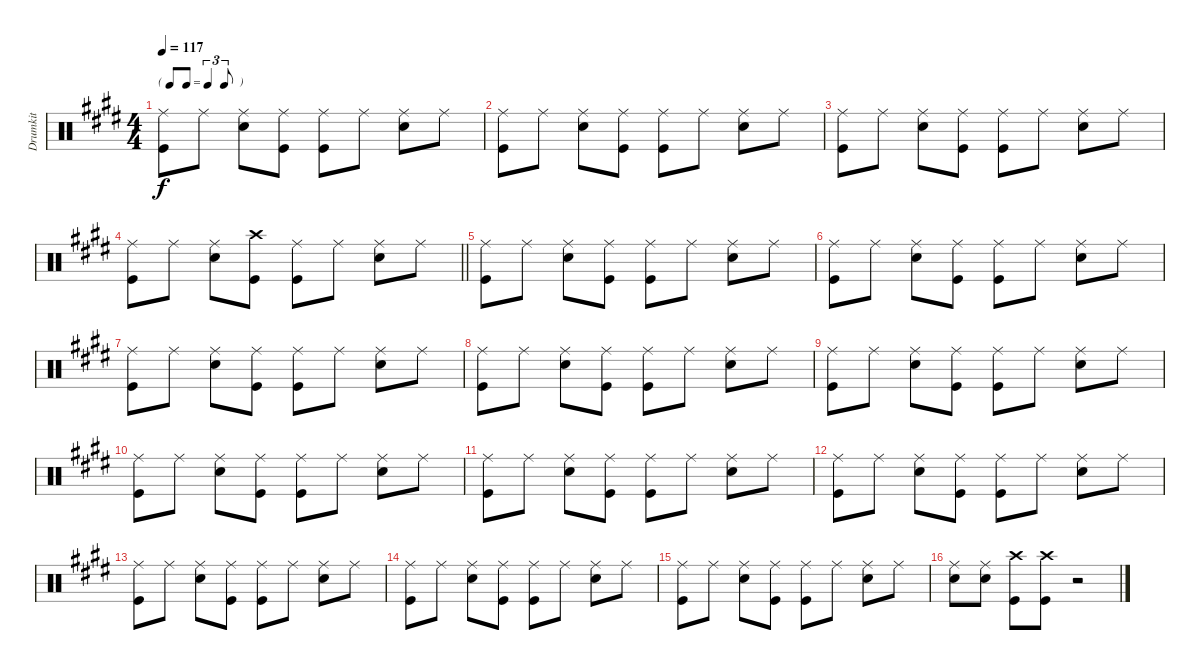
\track ("Drumkit" "Drumkit") {instrument percussion}
\staff {score}
\articulation defaults
\ts (4 4)
\tf triplet8th
\tempo 117
\clef neutral
\ks e
("Ride (middle)" "Kick (hit)").8{dy f} "Ride (middle)".8 ("Ride (middle)" "Snare (hit) 2").8 ("Ride (middle)" "Kick (hit)").8 ("Ride (middle)" "Kick (hit)").8 "Ride (middle)".8 ("Ride (middle)" "Snare (hit) 2").8 "Ride (middle)".8 |
("Ride (middle)" "Kick (hit)").8 "Ride (middle)".8 ("Ride (middle)" "Snare (hit) 2").8 ("Ride (middle)" "Kick (hit)").8 ("Ride (middle)" "Kick (hit)").8 "Ride (middle)".8 ("Ride (middle)" "Snare (hit) 2").8 "Ride (middle)".8 |
("Ride (middle)" "Kick (hit)").8 "Ride (middle)".8 ("Ride (middle)" "Snare (hit) 2").8 ("Ride (middle)" "Kick (hit)").8 ("Ride (middle)" "Kick (hit)").8 "Ride (middle)".8 ("Ride (middle)" "Snare (hit) 2").8 "Ride (middle)".8 |
\barLineRight lightlight
("Ride (middle)" "Kick (hit)").8 "Ride (middle)".8 ("Ride (middle)" "Snare (hit) 2").8 ("Crash high (hit)" "Kick (hit)").8 ("Ride (middle)" "Kick (hit)").8 "Ride (middle)".8 ("Ride (middle)" "Snare (hit) 2").8 "Ride (middle)".8 |
("Ride (middle)" "Kick (hit)").8 "Ride (middle)".8 ("Ride (middle)" "Snare (hit) 2").8 ("Ride (middle)" "Kick (hit)").8 ("Ride (middle)" "Kick (hit)").8 "Ride (middle)".8 ("Ride (middle)" "Snare (hit) 2").8 "Ride (middle)".8 |
("Ride (middle)" "Kick (hit)").8 "Ride (middle)".8 ("Ride (middle)" "Snare (hit) 2").8 ("Ride (middle)" "Kick (hit)").8 ("Ride (middle)" "Kick (hit)").8 "Ride (middle)".8 ("Ride (middle)" "Snare (hit) 2").8 "Ride (middle)".8 |
("Ride (middle)" "Kick (hit)").8 "Ride (middle)".8 ("Ride (middle)" "Snare (hit) 2").8 ("Ride (middle)" "Kick (hit)").8 ("Ride (middle)" "Kick (hit)").8 "Ride (middle)".8 ("Ride (middle)" "Snare (hit) 2").8 "Ride (middle)".8 |
("Ride (middle)" "Kick (hit)").8 "Ride (middle)".8 ("Ride (middle)" "Snare (hit) 2").8 ("Ride (middle)" "Kick (hit)").8 ("Ride (middle)" "Kick (hit)").8 "Ride (middle)".8 ("Ride (middle)" "Snare (hit) 2").8 "Ride (middle)".8 |
("Ride (middle)" "Kick (hit)").8 "Ride (middle)".8 ("Ride (middle)" "Snare (hit) 2").8 ("Ride (middle)" "Kick (hit)").8 ("Ride (middle)" "Kick (hit)").8 "Ride (middle)".8 ("Ride (middle)" "Snare (hit) 2").8 "Ride (middle)".8 |
("Ride (middle)" "Kick (hit)").8 "Ride (middle)".8 ("Ride (middle)" "Snare (hit) 2").8 ("Ride (middle)" "Kick (hit)").8 ("Ride (middle)" "Kick (hit)").8 "Ride (middle)".8 ("Ride (middle)" "Snare (hit) 2").8 "Ride (middle)".8 |
("Ride (middle)" "Kick (hit)").8 "Ride (middle)".8 ("Ride (middle)" "Snare (hit) 2").8 ("Ride (middle)" "Kick (hit)").8 ("Ride (middle)" "Kick (hit)").8 "Ride (middle)".8 ("Ride (middle)" "Snare (hit) 2").8 "Ride (middle)".8 |
("Ride (middle)" "Kick (hit)").8 "Ride (middle)".8 ("Ride (middle)" "Snare (hit) 2").8 ("Ride (middle)" "Kick (hit)").8 ("Ride (middle)" "Kick (hit)").8 "Ride (middle)".8 ("Ride (middle)" "Snare (hit) 2").8 "Ride (middle)".8 |
("Ride (middle)" "Kick (hit)").8 "Ride (middle)".8 ("Ride (middle)" "Snare (hit) 2").8 ("Ride (middle)" "Kick (hit)").8 ("Ride (middle)" "Kick (hit)").8 "Ride (middle)".8 ("Ride (middle)" "Snare (hit) 2").8 "Ride (middle)".8 |
("Ride (middle)" "Kick (hit)").8 "Ride (middle)".8 ("Ride (middle)" "Snare (hit) 2").8 ("Ride (middle)" "Kick (hit)").8 ("Ride (middle)" "Kick (hit)").8 "Ride (middle)".8 ("Ride (middle)" "Snare (hit) 2").8 "Ride (middle)".8 |
("Ride (middle)" "Kick (hit)").8 "Ride (middle)".8 ("Ride (middle)" "Snare (hit) 2").8 ("Ride (middle)" "Kick (hit)").8 ("Ride (middle)" "Kick (hit)").8 "Ride (middle)".8 ("Ride (middle)" "Snare (hit) 2").8 "Ride (middle)".8 |
("Ride (middle)" "Snare (hit) 2").8 ("Ride (middle)" "Snare (hit) 2").8 ("Crash high (hit)" "Kick (hit)").8 ("Crash high (hit)" "Kick (hit)").8 r.2
